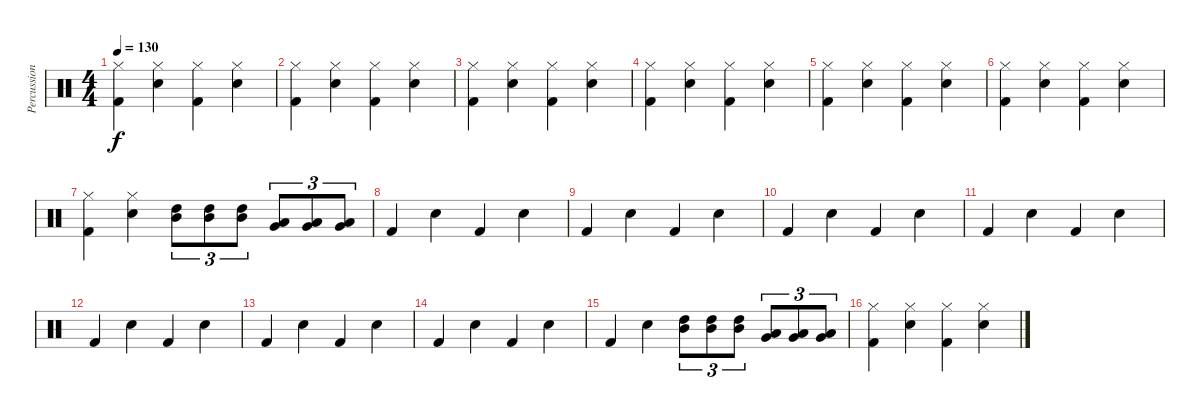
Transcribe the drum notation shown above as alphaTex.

\track ("Percussion" "Percussion") {instrument percussion bank 177}
\staff {score}
\articulation defaults
\ts (4 4)
\tempo 130
\clef neutral
\ks c
("Hi-Hat (closed)" "Kick (hit) 2").4{dy f} ("Hi-Hat (closed)" "Snare (hit) 2").4 ("Hi-Hat (closed)" "Kick (hit) 2").4 ("Hi-Hat (closed)" "Snare (hit) 2").4 |
("Hi-Hat (closed)" "Kick (hit) 2").4 ("Hi-Hat (closed)" "Snare (hit) 2").4 ("Hi-Hat (closed)" "Kick (hit) 2").4 ("Hi-Hat (closed)" "Snare (hit) 2").4 |
("Hi-Hat (closed)" "Kick (hit) 2").4 ("Hi-Hat (closed)" "Snare (hit) 2").4 ("Hi-Hat (closed)" "Kick (hit) 2").4 ("Hi-Hat (closed)" "Snare (hit) 2").4 |
("Hi-Hat (closed)" "Kick (hit) 2").4 ("Hi-Hat (closed)" "Snare (hit) 2").4 ("Hi-Hat (closed)" "Kick (hit) 2").4 ("Hi-Hat (closed)" "Snare (hit) 2").4 |
("Hi-Hat (closed)" "Kick (hit) 2").4 ("Hi-Hat (closed)" "Snare (hit) 2").4 ("Hi-Hat (closed)" "Kick (hit) 2").4 ("Hi-Hat (closed)" "Snare (hit) 2").4 |
("Hi-Hat (closed)" "Kick (hit) 2").4 ("Hi-Hat (closed)" "Snare (hit) 2").4 ("Hi-Hat (closed)" "Kick (hit) 2").4 ("Hi-Hat (closed)" "Snare (hit) 2").4 |
("Hi-Hat (closed)" "Kick (hit) 2").4 ("Hi-Hat (closed)" "Snare (hit) 2").4 ("High Tom (hit)" "Mid Tom (hit)").8{tu (3 2)} ("High Tom (hit)" "Mid Tom (hit)").8{tu (3 2)} ("High Tom (hit)" "Mid Tom (hit)").8{tu (3 2)} ("Low Tom (hit)" "Very Low Tom (hit)").8{tu (3 2)} ("Low Tom (hit)" "Very Low Tom (hit)").8{tu (3 2)} ("Low Tom (hit)" "Very Low Tom (hit)").8{tu (3 2)} |
"Kick (hit) 2".4 "Snare (hit) 2".4 "Kick (hit) 2".4 "Snare (hit) 2".4 |
"Kick (hit) 2".4 "Snare (hit) 2".4 "Kick (hit) 2".4 "Snare (hit) 2".4 |
"Kick (hit) 2".4 "Snare (hit) 2".4 "Kick (hit) 2".4 "Snare (hit) 2".4 |
"Kick (hit) 2".4 "Snare (hit) 2".4 "Kick (hit) 2".4 "Snare (hit) 2".4 |
"Kick (hit) 2".4 "Snare (hit) 2".4 "Kick (hit) 2".4 "Snare (hit) 2".4 |
"Kick (hit) 2".4 "Snare (hit) 2".4 "Kick (hit) 2".4 "Snare (hit) 2".4 |
"Kick (hit) 2".4 "Snare (hit) 2".4 "Kick (hit) 2".4 "Snare (hit) 2".4 |
"Kick (hit) 2".4 "Snare (hit) 2".4 ("High Tom (hit)" "Mid Tom (hit)").8{tu (3 2)} ("High Tom (hit)" "Mid Tom (hit)").8{tu (3 2)} ("High Tom (hit)" "Mid Tom (hit)").8{tu (3 2)} ("Low Tom (hit)" "Very Low Tom (hit)").8{tu (3 2)} ("Low Tom (hit)" "Very Low Tom (hit)").8{tu (3 2)} ("Low Tom (hit)" "Very Low Tom (hit)").8{tu (3 2)} |
("Hi-Hat (closed)" "Kick (hit) 2").4 ("Hi-Hat (closed)" "Snare (hit) 2").4 ("Hi-Hat (closed)" "Kick (hit) 2").4 ("Hi-Hat (closed)" "Snare (hit) 2").4
